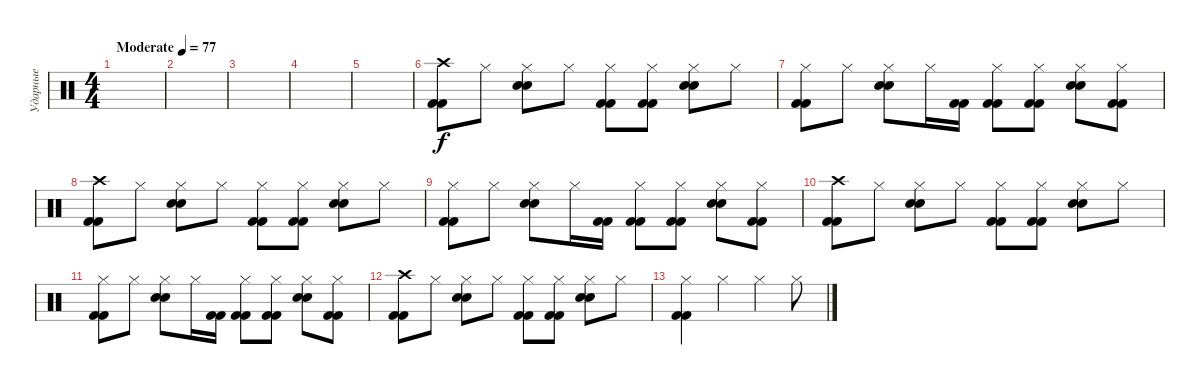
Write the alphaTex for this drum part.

\track ("Ударные" "Ударные") {instrument percussion}
\staff {score}
\articulation defaults
\ts (4 4)
\tempo (77 "Moderate")
\clef neutral
\ks c
|
|
|
|
|
("Crash high (hit)" "Kick (hit) 2" "Kick (hit) 2").8 "Hi-Hat (closed)".8 ("Hi-Hat (closed)" "Snare (hit) 2" "Snare (hit) 2").8 "Hi-Hat (closed)".8 ("Hi-Hat (closed)" "Kick (hit) 2" "Kick (hit) 2").8 ("Hi-Hat (closed)" "Kick (hit) 2" "Kick (hit) 2").8 ("Hi-Hat (closed)" "Snare (hit) 2" "Snare (hit) 2").8 "Hi-Hat (closed)".8 |
("Hi-Hat (closed)" "Kick (hit) 2" "Kick (hit) 2").8 "Hi-Hat (closed)".8 ("Hi-Hat (closed)" "Snare (hit) 2" "Snare (hit) 2").8 "Hi-Hat (closed)".16 ("Kick (hit) 2" "Kick (hit) 2").16 ("Hi-Hat (closed)" "Kick (hit) 2" "Kick (hit) 2").8 ("Hi-Hat (closed)" "Kick (hit) 2" "Kick (hit) 2").8 ("Hi-Hat (closed)" "Snare (hit) 2" "Snare (hit) 2").8 ("Hi-Hat (closed)" "Kick (hit) 2" "Kick (hit) 2").8 |
("Crash high (hit)" "Kick (hit) 2" "Kick (hit) 2").8 "Hi-Hat (closed)".8 ("Hi-Hat (closed)" "Snare (hit) 2" "Snare (hit) 2").8 "Hi-Hat (closed)".8 ("Hi-Hat (closed)" "Kick (hit) 2" "Kick (hit) 2").8 ("Hi-Hat (closed)" "Kick (hit) 2" "Kick (hit) 2").8 ("Hi-Hat (closed)" "Snare (hit) 2" "Snare (hit) 2").8 "Hi-Hat (closed)".8 |
("Hi-Hat (closed)" "Kick (hit) 2" "Kick (hit) 2").8 "Hi-Hat (closed)".8 ("Hi-Hat (closed)" "Snare (hit) 2" "Snare (hit) 2").8 "Hi-Hat (closed)".16 ("Kick (hit) 2" "Kick (hit) 2").16 ("Hi-Hat (closed)" "Kick (hit) 2" "Kick (hit) 2").8 ("Hi-Hat (closed)" "Kick (hit) 2" "Kick (hit) 2").8 ("Hi-Hat (closed)" "Snare (hit) 2" "Snare (hit) 2").8 ("Hi-Hat (closed)" "Kick (hit) 2" "Kick (hit) 2").8 |
("Crash high (hit)" "Kick (hit) 2" "Kick (hit) 2").8 "Hi-Hat (closed)".8 ("Hi-Hat (closed)" "Snare (hit) 2" "Snare (hit) 2").8 "Hi-Hat (closed)".8 ("Hi-Hat (closed)" "Kick (hit) 2" "Kick (hit) 2").8 ("Hi-Hat (closed)" "Kick (hit) 2" "Kick (hit) 2").8 ("Hi-Hat (closed)" "Snare (hit) 2" "Snare (hit) 2").8 "Hi-Hat (closed)".8 |
("Hi-Hat (closed)" "Kick (hit) 2" "Kick (hit) 2").8 "Hi-Hat (closed)".8 ("Hi-Hat (closed)" "Snare (hit) 2" "Snare (hit) 2").8 "Hi-Hat (closed)".16 ("Kick (hit) 2" "Kick (hit) 2").16 ("Hi-Hat (closed)" "Kick (hit) 2" "Kick (hit) 2").8 ("Hi-Hat (closed)" "Kick (hit) 2" "Kick (hit) 2").8 ("Hi-Hat (closed)" "Snare (hit) 2" "Snare (hit) 2").8 ("Hi-Hat (closed)" "Kick (hit) 2" "Kick (hit) 2").8 |
("Crash high (hit)" "Kick (hit) 2" "Kick (hit) 2").8 "Hi-Hat (closed)".8 ("Hi-Hat (closed)" "Snare (hit) 2" "Snare (hit) 2").8 "Hi-Hat (closed)".8 ("Hi-Hat (closed)" "Kick (hit) 2" "Kick (hit) 2").8 ("Hi-Hat (closed)" "Kick (hit) 2" "Kick (hit) 2").8 ("Hi-Hat (closed)" "Snare (hit) 2" "Snare (hit) 2").8 "Hi-Hat (closed)".8 |
("Hi-Hat (closed)" "Kick (hit) 2" "Kick (hit) 2").4 "Hi-Hat (closed)".4 "Hi-Hat (closed)".4 "Hi-Hat (closed)".8
